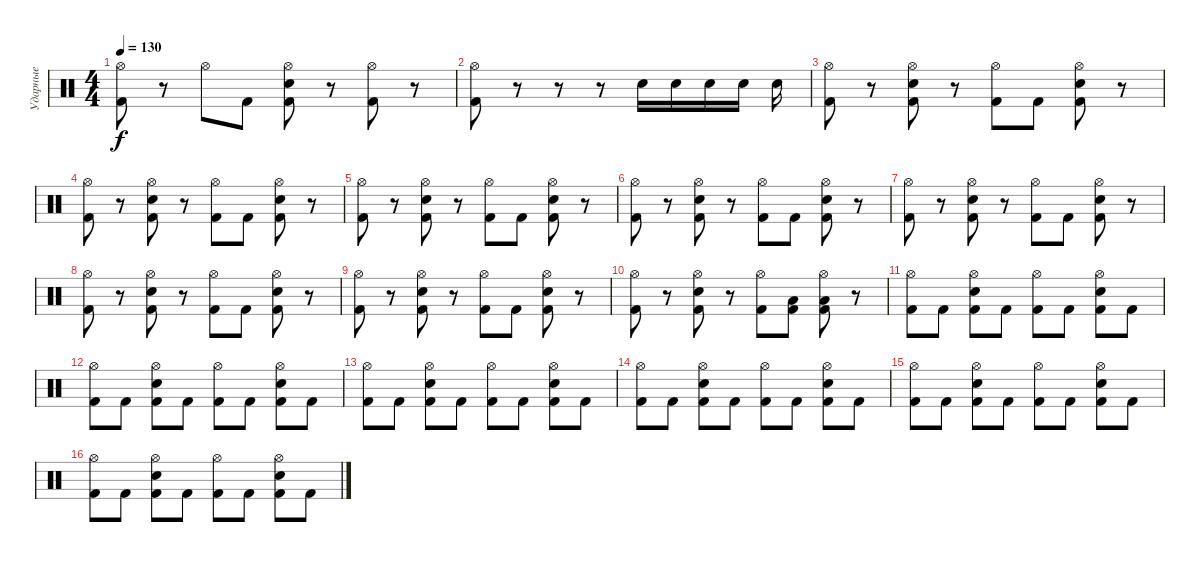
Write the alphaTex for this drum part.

\track ("Ударные" "Ударные") {instrument percussion}
\staff {score}
\articulation defaults
\ts (4 4)
\tempo 130
\clef neutral
\ks c
("Hi-Hat (open)" "Kick (hit) 2").8{dy f} r.8 "Hi-Hat (open)".8 "Kick (hit) 2".8 ("Hi-Hat (open)" "Snare (hit) 2" "Kick (hit) 2").8 r.8 ("Hi-Hat (open)" "Kick (hit) 2").8 r.8 |
("Hi-Hat (open)" "Kick (hit) 2").8 r.8 r.8 r.8 "Snare (hit) 2".16 "Snare (hit) 2".16 "Snare (hit) 2".16 "Snare (hit) 2".16 "Snare (hit) 2".16 |
("Hi-Hat (open)" "Kick (hit) 2").8 r.8 ("Hi-Hat (open)" "Snare (hit) 2" "Kick (hit) 2").8 r.8 ("Hi-Hat (open)" "Kick (hit) 2").8 "Kick (hit) 2".8 ("Hi-Hat (open)" "Snare (hit) 2" "Kick (hit) 2").8 r.8 |
("Hi-Hat (open)" "Kick (hit) 2").8 r.8 ("Hi-Hat (open)" "Snare (hit) 2" "Kick (hit) 2").8 r.8 ("Hi-Hat (open)" "Kick (hit) 2").8 "Kick (hit) 2".8 ("Hi-Hat (open)" "Snare (hit) 2" "Kick (hit) 2").8 r.8 |
("Hi-Hat (open)" "Kick (hit) 2").8 r.8 ("Hi-Hat (open)" "Snare (hit) 2" "Kick (hit) 2").8 r.8 ("Hi-Hat (open)" "Kick (hit) 2").8 "Kick (hit) 2".8 ("Hi-Hat (open)" "Snare (hit) 2" "Kick (hit) 2").8 r.8 |
("Hi-Hat (open)" "Kick (hit) 2").8 r.8 ("Hi-Hat (open)" "Snare (hit) 2" "Kick (hit) 2").8 r.8 ("Hi-Hat (open)" "Kick (hit) 2").8 "Kick (hit) 2".8 ("Hi-Hat (open)" "Snare (hit) 2" "Kick (hit) 2").8 r.8 |
("Hi-Hat (open)" "Kick (hit) 2").8 r.8 ("Hi-Hat (open)" "Snare (hit) 2" "Kick (hit) 2").8 r.8 ("Hi-Hat (open)" "Kick (hit) 2").8 "Kick (hit) 2".8 ("Hi-Hat (open)" "Snare (hit) 2" "Kick (hit) 2").8 r.8 |
("Hi-Hat (open)" "Kick (hit) 2").8 r.8 ("Hi-Hat (open)" "Snare (hit) 2" "Kick (hit) 2").8 r.8 ("Hi-Hat (open)" "Kick (hit) 2").8 "Kick (hit) 2".8 ("Hi-Hat (open)" "Snare (hit) 2" "Kick (hit) 2").8 r.8 |
("Hi-Hat (open)" "Kick (hit) 2").8 r.8 ("Hi-Hat (open)" "Snare (hit) 2" "Kick (hit) 2").8 r.8 ("Hi-Hat (open)" "Kick (hit) 2").8 "Kick (hit) 2".8 ("Hi-Hat (open)" "Snare (hit) 2" "Kick (hit) 2").8 r.8 |
("Hi-Hat (open)" "Kick (hit) 2").8 r.8 ("Hi-Hat (open)" "Snare (hit) 2" "Kick (hit) 2").8 r.8 ("Hi-Hat (open)" "Kick (hit) 2").8 ("Low Tom (hit)" "Kick (hit) 2").8 ("Hi-Hat (open)" "Low Tom (hit)" "Kick (hit) 2").8 r.8 |
("Hi-Hat (open)" "Kick (hit) 2").8 "Kick (hit) 2".8 ("Hi-Hat (open)" "Snare (hit) 2" "Kick (hit) 2").8 "Kick (hit) 2".8 ("Hi-Hat (open)" "Kick (hit) 2").8 "Kick (hit) 2".8 ("Hi-Hat (open)" "Snare (hit) 2" "Kick (hit) 2").8 "Kick (hit) 2".8 |
("Hi-Hat (open)" "Kick (hit) 2").8 "Kick (hit) 2".8 ("Hi-Hat (open)" "Snare (hit) 2" "Kick (hit) 2").8 "Kick (hit) 2".8 ("Hi-Hat (open)" "Kick (hit) 2").8 "Kick (hit) 2".8 ("Hi-Hat (open)" "Snare (hit) 2" "Kick (hit) 2").8 "Kick (hit) 2".8 |
("Hi-Hat (open)" "Kick (hit) 2").8 "Kick (hit) 2".8 ("Hi-Hat (open)" "Snare (hit) 2" "Kick (hit) 2").8 "Kick (hit) 2".8 ("Hi-Hat (open)" "Kick (hit) 2").8 "Kick (hit) 2".8 ("Hi-Hat (open)" "Snare (hit) 2" "Kick (hit) 2").8 "Kick (hit) 2".8 |
("Hi-Hat (open)" "Kick (hit) 2").8 "Kick (hit) 2".8 ("Hi-Hat (open)" "Snare (hit) 2" "Kick (hit) 2").8 "Kick (hit) 2".8 ("Hi-Hat (open)" "Kick (hit) 2").8 "Kick (hit) 2".8 ("Hi-Hat (open)" "Snare (hit) 2" "Kick (hit) 2").8 "Kick (hit) 2".8 |
("Hi-Hat (open)" "Kick (hit) 2").8 "Kick (hit) 2".8 ("Hi-Hat (open)" "Snare (hit) 2" "Kick (hit) 2").8 "Kick (hit) 2".8 ("Hi-Hat (open)" "Kick (hit) 2").8 "Kick (hit) 2".8 ("Hi-Hat (open)" "Snare (hit) 2" "Kick (hit) 2").8 "Kick (hit) 2".8 |
("Hi-Hat (open)" "Kick (hit) 2").8 "Kick (hit) 2".8 ("Hi-Hat (open)" "Snare (hit) 2" "Kick (hit) 2").8 "Kick (hit) 2".8 ("Hi-Hat (open)" "Kick (hit) 2").8 "Kick (hit) 2".8 ("Hi-Hat (open)" "Snare (hit) 2" "Kick (hit) 2").8 "Kick (hit) 2".8
